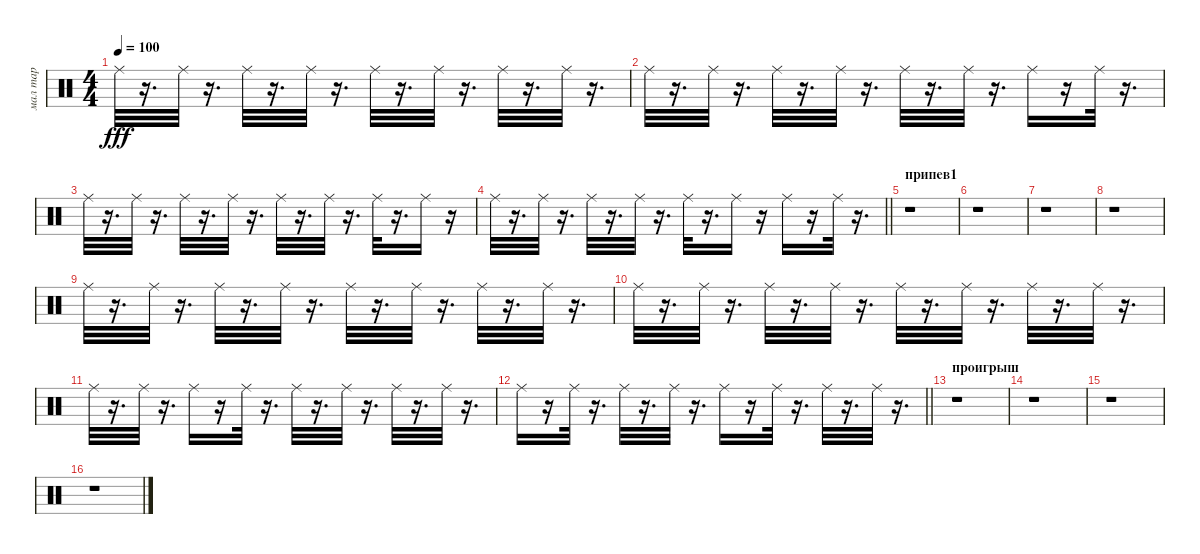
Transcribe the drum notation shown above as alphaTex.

\track ("мал тар" "мал тар") {instrument percussion}
\staff {score}
\articulation defaults
\ts (4 4)
\tempo 100
\clef neutral
\ks c "Ride (middle)".32{dy fff}
r.16{d} "Ride (middle)".32 r.16{d} "Ride (middle)".32 r.16{d} "Ride (middle)".32 r.16{d} "Ride (middle)".32 r.16{d} "Ride (middle)".32 r.16{d} "Ride (middle)".32 r.16{d} "Ride (middle)".32 r.16{d} |
"Ride (middle)".32 r.16{d} "Ride (middle)".32 r.16{d} "Ride (middle)".32 r.16{d} "Ride (middle)".32 r.16{d} "Ride (middle)".32 r.16{d} "Ride (middle)".32 r.16{d} "Ride (middle)".16 r.16 "Ride (middle)".32 r.16{d} |
"Ride (middle)".32 r.16{d} "Ride (middle)".32 r.16{d} "Ride (middle)".32 r.16{d} "Ride (middle)".32 r.16{d} "Ride (middle)".32 r.16{d} "Ride (middle)".32 r.16{d} "Ride (middle)".32 r.16{d} "Ride (middle)".16 r.16 |
\barLineRight lightlight "Ride (middle)".32
r.16{d} "Ride (middle)".32 r.16{d} "Ride (middle)".32 r.16{d} "Ride (middle)".32 r.16{d} "Ride (middle)".32 r.16{d} "Ride (middle)".16 r.16 "Ride (middle)".16 r.16 "Ride (middle)".32 r.16{d} |
\section ("" "припев1")
r.1 |
r.1 |
r.1 |
r.1 |
"Ride (middle)".32 r.16{d} "Ride (middle)".32 r.16{d} "Ride (middle)".32 r.16{d} "Ride (middle)".32 r.16{d} "Ride (middle)".32 r.16{d} "Ride (middle)".32 r.16{d} "Ride (middle)".32 r.16{d} "Ride (middle)".32 r.16{d} |
"Ride (middle)".32 r.16{d} "Ride (middle)".32 r.16{d} "Ride (middle)".32 r.16{d} "Ride (middle)".32 r.16{d} "Ride (middle)".32 r.16{d} "Ride (middle)".32 r.16{d} "Ride (middle)".32 r.16{d} "Ride (middle)".32 r.16{d} |
"Ride (middle)".32 r.16{d} "Ride (middle)".32 r.16{d} "Ride (middle)".16 r.16 "Ride (middle)".32 r.16{d} "Ride (middle)".32 r.16{d} "Ride (middle)".32 r.16{d} "Ride (middle)".32 r.16{d} "Ride (middle)".32 r.16{d} |
\barLineRight lightlight "Ride (middle)".16
r.16 "Ride (middle)".32 r.16{d} "Ride (middle)".32 r.16{d} "Ride (middle)".32 r.16{d} "Ride (middle)".16 r.16 "Ride (middle)".32 r.16{d} "Ride (middle)".32 r.16{d} "Ride (middle)".32 r.16{d} |
\section ("" "проигрыш")
r.1 |
r.1 |
r.1 |
r.1
